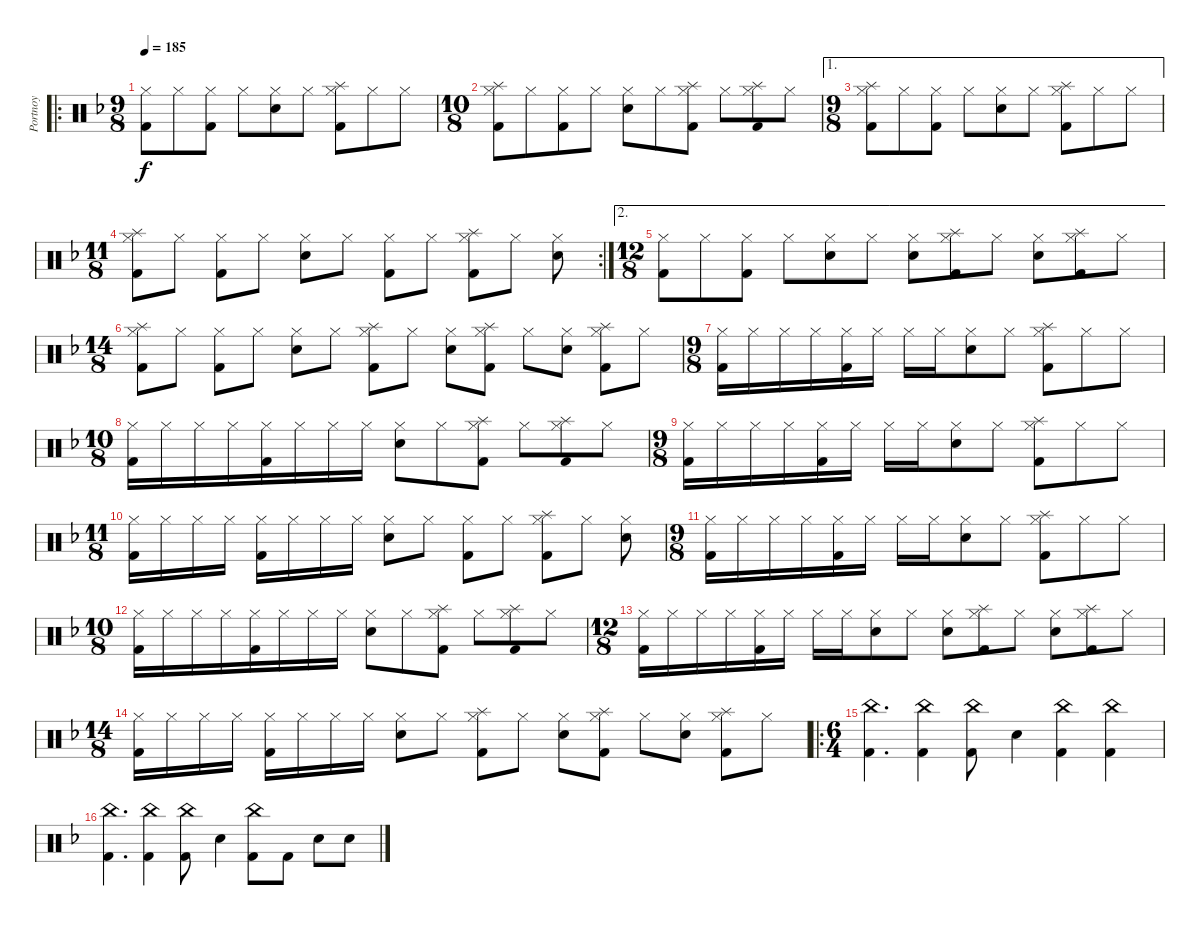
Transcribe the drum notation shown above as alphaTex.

\track ("Portnoy" "Portnoy") {instrument percussion}
\staff {score}
\articulation defaults
\ro
\ts (9 8)
\tempo 185
\clef neutral
\ks f
("Hi-Hat (closed)" "Kick (hit) 2").8{dy f} "Hi-Hat (closed)".8 ("Hi-Hat (closed)" "Kick (hit) 2").8 "Hi-Hat (closed)".8 ("Hi-Hat (closed)" "Electric Snare (hit)").8 "Hi-Hat (closed)".8 ("Splash (hit)" "Hi-Hat (closed)" "Kick (hit) 2").8 "Hi-Hat (closed)".8 "Hi-Hat (closed)".8 |
\ts (10 8)
("Splash (hit)" "Hi-Hat (closed)" "Kick (hit) 2").8 "Hi-Hat (closed)".8 ("Hi-Hat (closed)" "Kick (hit) 2").8 "Hi-Hat (closed)".8 ("Hi-Hat (closed)" "Electric Snare (hit)").8 "Hi-Hat (closed)".8 ("Splash (hit)" "Hi-Hat (closed)" "Kick (hit) 2").8 "Hi-Hat (closed)".8 ("Splash (hit)" "Hi-Hat (closed)" "Kick (hit) 2").8 "Hi-Hat (closed)".8 |
\ae 1
\ts (9 8)
("Splash (hit)" "Hi-Hat (closed)" "Kick (hit) 2").8 "Hi-Hat (closed)".8 ("Hi-Hat (closed)" "Kick (hit) 2").8 "Hi-Hat (closed)".8 ("Hi-Hat (closed)" "Electric Snare (hit)").8 "Hi-Hat (closed)".8 ("Splash (hit)" "Hi-Hat (closed)" "Kick (hit) 2").8 "Hi-Hat (closed)".8 "Hi-Hat (closed)".8 |
\rc 2
\ts (11 8)
("Splash (hit)" "Hi-Hat (closed)" "Kick (hit) 2").8 "Hi-Hat (closed)".8 ("Hi-Hat (closed)" "Kick (hit) 2").8 "Hi-Hat (closed)".8 ("Hi-Hat (closed)" "Electric Snare (hit)").8 "Hi-Hat (closed)".8 ("Hi-Hat (closed)" "Kick (hit) 2").8 "Hi-Hat (closed)".8 ("Splash (hit)" "Hi-Hat (closed)" "Kick (hit) 2").8 "Hi-Hat (closed)".8 ("Hi-Hat (closed)" "Electric Snare (hit)").8 |
\ae 2
\ts (12 8)
("Hi-Hat (closed)" "Kick (hit) 2").8 "Hi-Hat (closed)".8 ("Hi-Hat (closed)" "Kick (hit) 2").8 "Hi-Hat (closed)".8 ("Hi-Hat (closed)" "Electric Snare (hit)").8 "Hi-Hat (closed)".8 ("Hi-Hat (closed)" "Electric Snare (hit)").8 ("Splash (hit)" "Hi-Hat (closed)" "Kick (hit) 2").8 "Hi-Hat (closed)".8 ("Hi-Hat (closed)" "Electric Snare (hit)").8 ("Splash (hit)" "Hi-Hat (closed)" "Kick (hit) 2").8 "Hi-Hat (closed)".8 |
\ts (14 8)
("Splash (hit)" "Hi-Hat (closed)" "Kick (hit) 2").8 "Hi-Hat (closed)".8 ("Hi-Hat (closed)" "Kick (hit) 2").8 "Hi-Hat (closed)".8 ("Hi-Hat (closed)" "Electric Snare (hit)").8 "Hi-Hat (closed)".8 ("Splash (hit)" "Hi-Hat (closed)" "Kick (hit) 2").8 "Hi-Hat (closed)".8 ("Hi-Hat (closed)" "Electric Snare (hit)").8 ("Splash (hit)" "Hi-Hat (closed)" "Kick (hit) 2").8 "Hi-Hat (closed)".8 ("Hi-Hat (closed)" "Electric Snare (hit)").8 ("Splash (hit)" "Hi-Hat (closed)" "Kick (hit) 2").8 "Hi-Hat (closed)".8 |
\ts (9 8)
("Hi-Hat (closed)" "Kick (hit) 2").16 "Hi-Hat (closed)".16 "Hi-Hat (closed)".16 "Hi-Hat (closed)".16 ("Hi-Hat (closed)" "Kick (hit) 2").16 "Hi-Hat (closed)".16 "Hi-Hat (closed)".16 "Hi-Hat (closed)".16 ("Hi-Hat (closed)" "Electric Snare (hit)").8 "Hi-Hat (closed)".8 ("Splash (hit)" "Hi-Hat (closed)" "Kick (hit) 2").8 "Hi-Hat (closed)".8 "Hi-Hat (closed)".8 |
\ts (10 8)
("Hi-Hat (closed)" "Kick (hit) 2").16 "Hi-Hat (closed)".16 "Hi-Hat (closed)".16 "Hi-Hat (closed)".16 ("Hi-Hat (closed)" "Kick (hit) 2").16 "Hi-Hat (closed)".16 "Hi-Hat (closed)".16 "Hi-Hat (closed)".16 ("Hi-Hat (closed)" "Electric Snare (hit)").8 "Hi-Hat (closed)".8 ("Splash (hit)" "Hi-Hat (closed)" "Kick (hit) 2").8 "Hi-Hat (closed)".8 ("Splash (hit)" "Hi-Hat (closed)" "Kick (hit) 2").8 "Hi-Hat (closed)".8 |
\ts (9 8)
("Hi-Hat (closed)" "Kick (hit) 2").16 "Hi-Hat (closed)".16 "Hi-Hat (closed)".16 "Hi-Hat (closed)".16 ("Hi-Hat (closed)" "Kick (hit) 2").16 "Hi-Hat (closed)".16 "Hi-Hat (closed)".16 "Hi-Hat (closed)".16 ("Hi-Hat (closed)" "Electric Snare (hit)").8 "Hi-Hat (closed)".8 ("Splash (hit)" "Hi-Hat (closed)" "Kick (hit) 2").8 "Hi-Hat (closed)".8 "Hi-Hat (closed)".8 |
\ts (11 8)
("Hi-Hat (closed)" "Kick (hit) 2").16 "Hi-Hat (closed)".16 "Hi-Hat (closed)".16 "Hi-Hat (closed)".16 ("Hi-Hat (closed)" "Kick (hit) 2").16 "Hi-Hat (closed)".16 "Hi-Hat (closed)".16 "Hi-Hat (closed)".16 ("Hi-Hat (closed)" "Electric Snare (hit)").8 "Hi-Hat (closed)".8 ("Hi-Hat (closed)" "Kick (hit) 2").8 "Hi-Hat (closed)".8 ("Splash (hit)" "Hi-Hat (closed)" "Kick (hit) 2").8 "Hi-Hat (closed)".8 ("Hi-Hat (closed)" "Electric Snare (hit)").8 |
\ts (9 8)
("Hi-Hat (closed)" "Kick (hit) 2").16 "Hi-Hat (closed)".16 "Hi-Hat (closed)".16 "Hi-Hat (closed)".16 ("Hi-Hat (closed)" "Kick (hit) 2").16 "Hi-Hat (closed)".16 "Hi-Hat (closed)".16 "Hi-Hat (closed)".16 ("Hi-Hat (closed)" "Electric Snare (hit)").8 "Hi-Hat (closed)".8 ("Splash (hit)" "Hi-Hat (closed)" "Kick (hit) 2").8 "Hi-Hat (closed)".8 "Hi-Hat (closed)".8 |
\ts (10 8)
("Hi-Hat (closed)" "Kick (hit) 2").16 "Hi-Hat (closed)".16 "Hi-Hat (closed)".16 "Hi-Hat (closed)".16 ("Hi-Hat (closed)" "Kick (hit) 2").16 "Hi-Hat (closed)".16 "Hi-Hat (closed)".16 "Hi-Hat (closed)".16 ("Hi-Hat (closed)" "Electric Snare (hit)").8 "Hi-Hat (closed)".8 ("Splash (hit)" "Hi-Hat (closed)" "Kick (hit) 2").8 "Hi-Hat (closed)".8 ("Splash (hit)" "Hi-Hat (closed)" "Kick (hit) 2").8 "Hi-Hat (closed)".8 |
\ts (12 8)
("Hi-Hat (closed)" "Kick (hit) 2").16 "Hi-Hat (closed)".16 "Hi-Hat (closed)".16 "Hi-Hat (closed)".16 ("Hi-Hat (closed)" "Kick (hit) 2").16 "Hi-Hat (closed)".16 "Hi-Hat (closed)".16 "Hi-Hat (closed)".16 ("Hi-Hat (closed)" "Electric Snare (hit)").8 "Hi-Hat (closed)".8 ("Hi-Hat (closed)" "Electric Snare (hit)").8 ("Splash (hit)" "Hi-Hat (closed)" "Kick (hit) 2").8 "Hi-Hat (closed)".8 ("Hi-Hat (closed)" "Electric Snare (hit)").8 ("Splash (hit)" "Hi-Hat (closed)" "Kick (hit) 2").8 "Hi-Hat (closed)".8 |
\ts (14 8)
("Hi-Hat (closed)" "Kick (hit) 2").16 "Hi-Hat (closed)".16 "Hi-Hat (closed)".16 "Hi-Hat (closed)".16 ("Hi-Hat (closed)" "Kick (hit) 2").16 "Hi-Hat (closed)".16 "Hi-Hat (closed)".16 "Hi-Hat (closed)".16 ("Hi-Hat (closed)" "Electric Snare (hit)").8 "Hi-Hat (closed)".8 ("Splash (hit)" "Hi-Hat (closed)" "Kick (hit) 2").8 "Hi-Hat (closed)".8 ("Hi-Hat (closed)" "Electric Snare (hit)").8 ("Splash (hit)" "Hi-Hat (closed)" "Kick (hit) 2").8 "Hi-Hat (closed)".8 ("Hi-Hat (closed)" "Electric Snare (hit)").8 ("Splash (hit)" "Hi-Hat (closed)" "Kick (hit) 2").8 "Hi-Hat (closed)".8 |
\ro
\ts (6 4)
("China (hit)" "Kick (hit) 2").4{d} ("China (hit)" "Kick (hit) 2").4 ("China (hit)" "Kick (hit) 2").8 "Electric Snare (hit)".4 ("China (hit)" "Kick (hit) 2").4 ("China (hit)" "Kick (hit) 2").4 |
("China (hit)" "Kick (hit) 2").4{d} ("China (hit)" "Kick (hit) 2").4 ("China (hit)" "Kick (hit) 2").8 "Electric Snare (hit)".4 ("China (hit)" "Kick (hit) 2").8 "Kick (hit) 2".8 "Electric Snare (hit)".8 "Electric Snare (hit)".8
